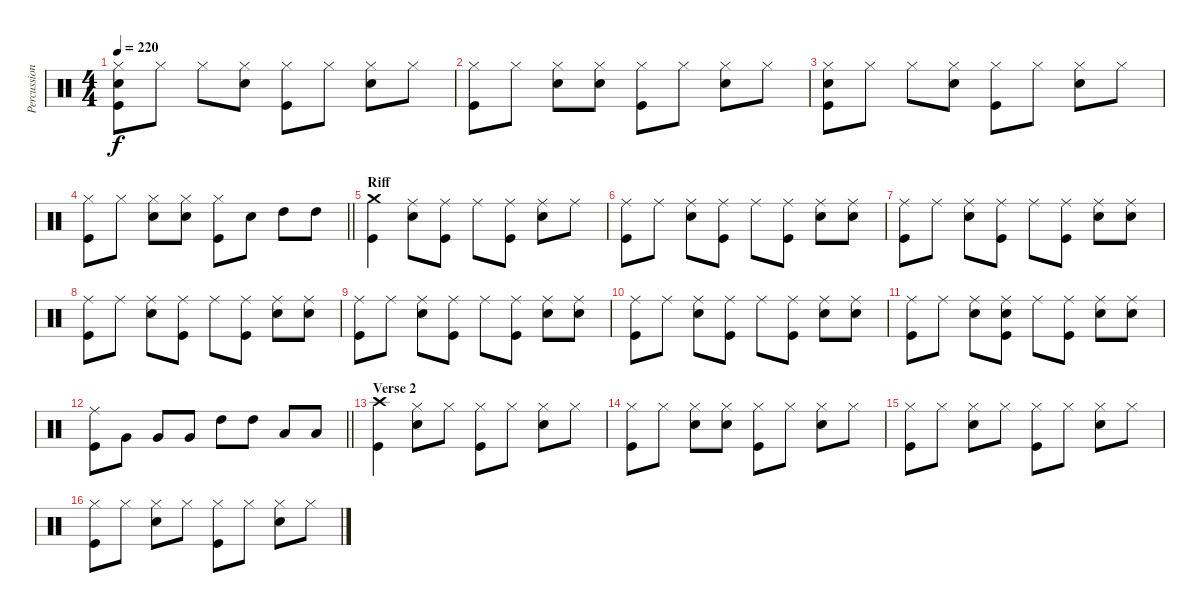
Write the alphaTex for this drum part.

\track ("Percussion" "Percussion") {instrument percussion}
\staff {score}
\articulation defaults
\ts (4 4)
\tempo 220
\clef neutral
\ks c
("Kick (hit)" "Hi-Hat (closed)" "Snare (hit) 2").8{dy f} "Hi-Hat (closed)".8 "Hi-Hat (closed)".8 ("Hi-Hat (closed)" "Snare (hit) 2").8 ("Kick (hit)" "Hi-Hat (closed)").8 "Hi-Hat (closed)".8 ("Hi-Hat (closed)" "Snare (hit) 2").8 "Hi-Hat (closed)".8 |
("Kick (hit)" "Hi-Hat (closed)").8 "Hi-Hat (closed)".8 ("Hi-Hat (closed)" "Snare (hit) 2").8 ("Hi-Hat (closed)" "Snare (hit) 2").8 ("Kick (hit)" "Hi-Hat (closed)").8 "Hi-Hat (closed)".8 ("Hi-Hat (closed)" "Snare (hit) 2").8 "Hi-Hat (closed)".8 |
("Kick (hit)" "Hi-Hat (closed)" "Snare (hit) 2").8 "Hi-Hat (closed)".8 "Hi-Hat (closed)".8 ("Hi-Hat (closed)" "Snare (hit) 2").8 ("Kick (hit)" "Hi-Hat (closed)").8 "Hi-Hat (closed)".8 ("Hi-Hat (closed)" "Snare (hit) 2").8 "Hi-Hat (closed)".8 |
\barLineRight lightlight
("Kick (hit)" "Hi-Hat (closed)").8 "Hi-Hat (closed)".8 ("Hi-Hat (closed)" "Snare (hit) 2").8 ("Hi-Hat (closed)" "Snare (hit) 2").8 ("Kick (hit)" "Hi-Hat (closed)").8 "Snare (hit) 2".8 "High Tom (hit)".8 "High Tom (hit)".8 |
\section ("" "Riff")
("Kick (hit)" "Crash medium (hit)").4 ("Ride (middle)" "Snare (hit) 2").8 ("Kick (hit)" "Ride (middle)").8 "Ride (middle)".8 ("Kick (hit)" "Ride (middle)").8 ("Ride (middle)" "Snare (hit) 2").8 "Ride (middle)".8 |
("Kick (hit)" "Ride (middle)").8 "Ride (middle)".8 ("Ride (middle)" "Snare (hit) 2").8 ("Kick (hit)" "Ride (middle)").8 "Ride (middle)".8 ("Kick (hit)" "Ride (middle)").8 ("Ride (middle)" "Snare (hit) 2").8 ("Ride (middle)" "Snare (hit) 2").8 |
("Kick (hit)" "Ride (middle)").8 "Ride (middle)".8 ("Ride (middle)" "Snare (hit) 2").8 ("Kick (hit)" "Ride (middle)").8 "Ride (middle)".8 ("Kick (hit)" "Ride (middle)").8 ("Ride (middle)" "Snare (hit) 2").8 ("Ride (middle)" "Snare (hit) 2").8 |
("Kick (hit)" "Ride (middle)").8 "Ride (middle)".8 ("Ride (middle)" "Snare (hit) 2").8 ("Kick (hit)" "Ride (middle)").8 "Ride (middle)".8 ("Kick (hit)" "Ride (middle)").8 ("Ride (middle)" "Snare (hit) 2").8 ("Ride (middle)" "Snare (hit) 2").8 |
("Kick (hit)" "Ride (middle)").8 "Ride (middle)".8 ("Ride (middle)" "Snare (hit) 2").8 ("Kick (hit)" "Ride (middle)").8 "Ride (middle)".8 ("Kick (hit)" "Ride (middle)").8 ("Ride (middle)" "Snare (hit) 2").8 ("Ride (middle)" "Snare (hit) 2").8 |
("Kick (hit)" "Ride (middle)").8 "Ride (middle)".8 ("Ride (middle)" "Snare (hit) 2").8 ("Kick (hit)" "Ride (middle)").8 "Ride (middle)".8 ("Kick (hit)" "Ride (middle)").8 ("Ride (middle)" "Snare (hit) 2").8 ("Ride (middle)" "Snare (hit) 2").8 |
("Kick (hit)" "Ride (middle)").8 "Ride (middle)".8 ("Ride (middle)" "Snare (hit) 2").8 ("Kick (hit)" "Ride (middle)" "Snare (hit) 2").8 "Ride (middle)".8 ("Kick (hit)" "Ride (middle)").8 ("Ride (middle)" "Snare (hit) 2").8 ("Ride (middle)" "Snare (hit) 2").8 |
\barLineRight lightlight
("Kick (hit)" "Ride (middle)").8 "Very Low Tom (hit)".8 "Very Low Tom (hit)".8 "Very Low Tom (hit)".8 "High Tom (hit)".8 "High Tom (hit)".8 "Low Tom (hit)".8 "Low Tom (hit)".8 |
\section ("" "Verse 2")
("Kick (hit)" "Crash high (hit)").4 ("Hi-Hat (closed)" "Snare (hit) 2").8 "Hi-Hat (closed)".8 ("Kick (hit)" "Hi-Hat (closed)").8 "Hi-Hat (closed)".8 ("Hi-Hat (closed)" "Snare (hit) 2").8 "Hi-Hat (closed)".8 |
("Kick (hit)" "Hi-Hat (closed)").8 "Hi-Hat (closed)".8 ("Hi-Hat (closed)" "Snare (hit) 2").8 ("Hi-Hat (closed)" "Snare (hit) 2").8 ("Kick (hit)" "Hi-Hat (closed)").8 "Hi-Hat (closed)".8 ("Hi-Hat (closed)" "Snare (hit) 2").8 "Hi-Hat (closed)".8 |
("Kick (hit)" "Hi-Hat (closed)").8 "Hi-Hat (closed)".8 ("Hi-Hat (closed)" "Snare (hit) 2").8 "Hi-Hat (closed)".8 ("Kick (hit)" "Hi-Hat (closed)").8 "Hi-Hat (closed)".8 ("Hi-Hat (closed)" "Snare (hit) 2").8 "Hi-Hat (closed)".8 |
("Kick (hit)" "Hi-Hat (closed)").8 "Hi-Hat (closed)".8 ("Hi-Hat (closed)" "Snare (hit) 2").8 "Hi-Hat (closed)".8 ("Kick (hit)" "Hi-Hat (closed)").8 "Hi-Hat (closed)".8 ("Hi-Hat (closed)" "Snare (hit) 2").8 "Hi-Hat (closed)".8
